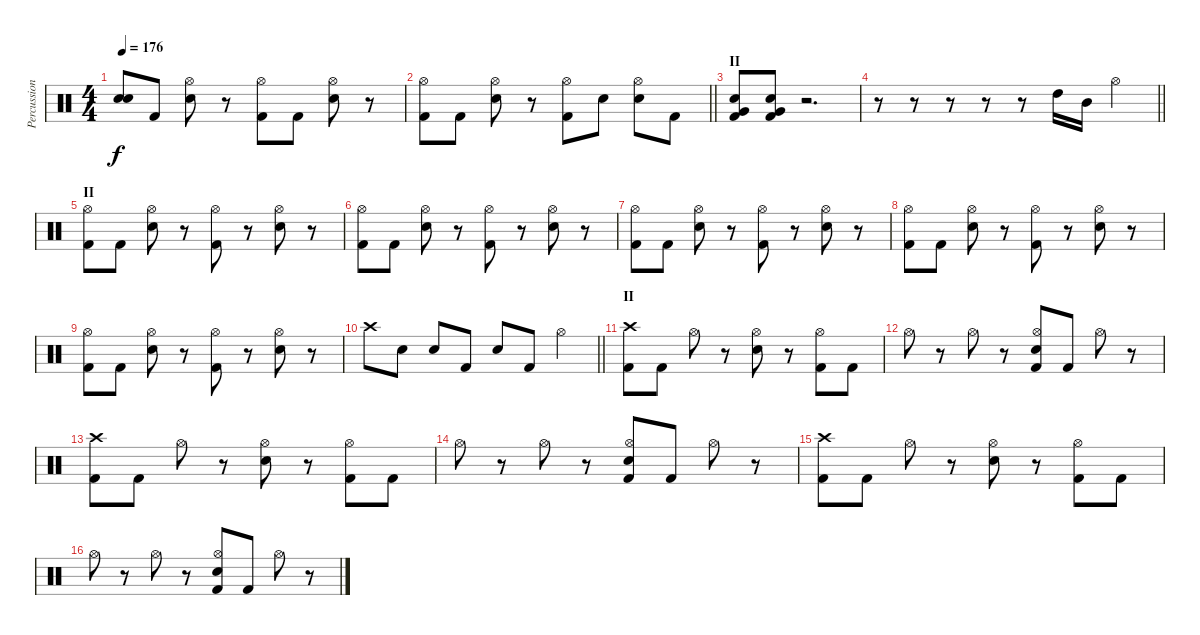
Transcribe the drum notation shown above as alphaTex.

\track ("Percussion" "Percussion") {instrument percussion}
\staff {score}
\articulation defaults
\ts (4 4)
\tempo 176
\clef neutral
\ks c
("Snare (hit)"{t} "Snare (hit)"{t}).8{dy f} "Kick (hit) 2".8 ("Hi-Hat (open)" "Electric Snare (hit)").8 r.8 ("Hi-Hat (open)" "Kick (hit) 2").8 "Kick (hit) 2".8 ("Hi-Hat (open)" "Electric Snare (hit)").8 r.8 |
\barLineRight lightlight
("Hi-Hat (open)" "Kick (hit) 2").8 "Kick (hit) 2".8 ("Hi-Hat (open)" "Electric Snare (hit)").8 r.8 ("Hi-Hat (open)" "Kick (hit) 2").8 "Electric Snare (hit)".8 ("Hi-Hat (open)" "Electric Snare (hit)").8 "Kick (hit) 2".8 |
\section ("" "II")
("Very Low Tom (hit)" "Electric Snare (hit)" "Kick (hit) 2").8 ("Very Low Tom (hit)" "Electric Snare (hit)" "Kick (hit) 2").8 r.2{d} |
\barLineRight lightlight
r.8 r.8 r.8 r.8 r.8 "High Tom (hit)".16 "Mid Tom (hit)".16 "Hi-Hat (open)".4 |
\section ("" "II")
("Hi-Hat (open)" "Kick (hit) 2").8 "Kick (hit) 2".8 ("Hi-Hat (open)" "Electric Snare (hit)").8 r.8 ("Hi-Hat (open)" "Kick (hit) 2").8 r.8 ("Hi-Hat (open)" "Electric Snare (hit)").8 r.8 |
("Hi-Hat (open)" "Kick (hit) 2").8 "Kick (hit) 2".8 ("Hi-Hat (open)" "Electric Snare (hit)").8 r.8 ("Hi-Hat (open)" "Kick (hit) 2").8 r.8 ("Hi-Hat (open)" "Electric Snare (hit)").8 r.8 |
("Hi-Hat (open)" "Kick (hit) 2").8 "Kick (hit) 2".8 ("Hi-Hat (open)" "Electric Snare (hit)").8 r.8 ("Hi-Hat (open)" "Kick (hit) 2").8 r.8 ("Hi-Hat (open)" "Electric Snare (hit)").8 r.8 |
("Hi-Hat (open)" "Kick (hit) 2").8 "Kick (hit) 2".8 ("Hi-Hat (open)" "Electric Snare (hit)").8 r.8 ("Hi-Hat (open)" "Kick (hit) 2").8 r.8 ("Hi-Hat (open)" "Electric Snare (hit)").8 r.8 |
("Hi-Hat (open)" "Kick (hit) 2").8 "Kick (hit) 2".8 ("Hi-Hat (open)" "Electric Snare (hit)").8 r.8 ("Hi-Hat (open)" "Kick (hit) 2").8 r.8 ("Hi-Hat (open)" "Electric Snare (hit)").8 r.8 |
\barLineRight lightlight "Crash high (hit)".8 "Electric Snare (hit)".8 "Electric Snare (hit)".8 "Kick (hit) 2".8 "Electric Snare (hit)".8 "Kick (hit) 2".8 "Hi-Hat (open)".4
|
\section ("" "II")
("Crash high (hit)" "Kick (hit) 2").8 "Kick (hit) 2".8 "Hi-Hat (open)".8 r.8 ("Hi-Hat (open)" "Electric Snare (hit)").8 r.8 ("Hi-Hat (open)" "Kick (hit) 2").8 "Kick (hit) 2".8 |
"Hi-Hat (open)".8 r.8 "Hi-Hat (open)".8 r.8 ("Hi-Hat (open)" "Electric Snare (hit)" "Kick (hit) 2").8 "Kick (hit) 2".8 "Hi-Hat (open)".8 r.8 |
("Crash high (hit)" "Kick (hit) 2").8 "Kick (hit) 2".8 "Hi-Hat (open)".8 r.8 ("Hi-Hat (open)" "Electric Snare (hit)").8 r.8 ("Hi-Hat (open)" "Kick (hit) 2").8 "Kick (hit) 2".8 |
"Hi-Hat (open)".8 r.8 "Hi-Hat (open)".8 r.8 ("Hi-Hat (open)" "Electric Snare (hit)" "Kick (hit) 2").8 "Kick (hit) 2".8 "Hi-Hat (open)".8 r.8 |
("Crash high (hit)" "Kick (hit) 2").8 "Kick (hit) 2".8 "Hi-Hat (open)".8 r.8 ("Hi-Hat (open)" "Electric Snare (hit)").8 r.8 ("Hi-Hat (open)" "Kick (hit) 2").8 "Kick (hit) 2".8 |
"Hi-Hat (open)".8 r.8 "Hi-Hat (open)".8 r.8 ("Hi-Hat (open)" "Electric Snare (hit)" "Kick (hit) 2").8 "Kick (hit) 2".8 "Hi-Hat (open)".8 r.8
